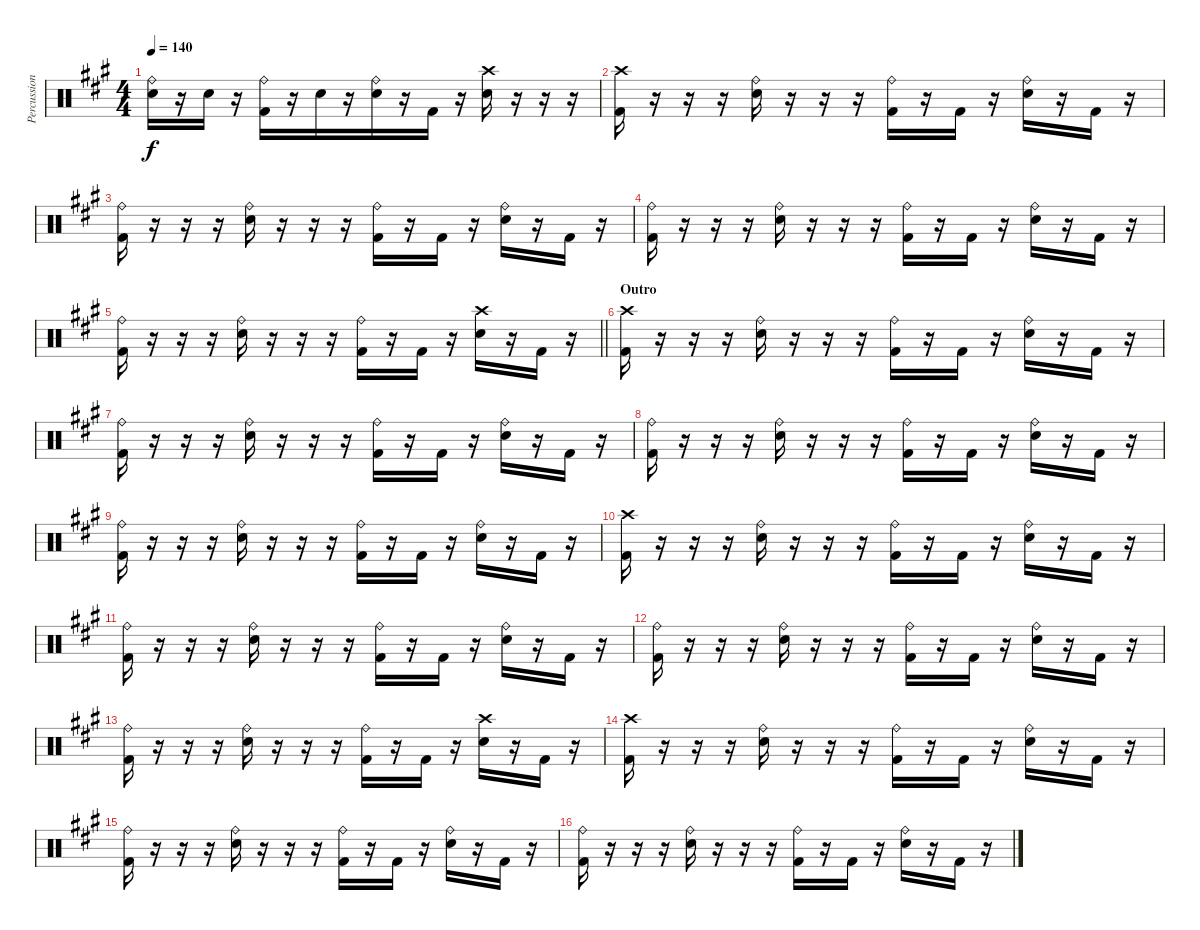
\track ("Percussion" "Percussion") {instrument percussion}
\staff {score}
\articulation defaults
\ts (4 4)
\tempo 140
\clef neutral
\ks a
("Electric Snare (hit)" "Ride (bell)").16{dy f} r.16{beam merge} "Electric Snare (hit)".16 r.16{beam merge} ("Kick (hit) 2" "Ride (bell)").16 r.16 "Electric Snare (hit)".16{beam merge} r.16 ("Electric Snare (hit)" "Ride (bell)").16 r.16 "Kick (hit) 2".16 r.16 ("Electric Snare (hit)" "Crash high (hit)").16 r.16{beam merge} r.16 r.16 |
("Kick (hit) 2" "Crash high (hit)").16 r.16{beam merge} r.16 r.16{beam merge} ("Electric Snare (hit)" "Ride (bell)").16 r.16 r.16{beam merge} r.16 ("Kick (hit) 2" "Ride (bell)").16 r.16 "Kick (hit) 2".16 r.16 ("Electric Snare (hit)" "Ride (bell)").16 r.16{beam merge} "Kick (hit) 2".16 r.16 |
("Kick (hit) 2" "Ride (bell)").16 r.16{beam merge} r.16 r.16{beam merge} ("Electric Snare (hit)" "Ride (bell)").16 r.16 r.16{beam merge} r.16 ("Kick (hit) 2" "Ride (bell)").16 r.16 "Kick (hit) 2".16 r.16 ("Electric Snare (hit)" "Ride (bell)").16 r.16{beam merge} "Kick (hit) 2".16 r.16 |
("Kick (hit) 2" "Ride (bell)").16 r.16{beam merge} r.16 r.16{beam merge} ("Electric Snare (hit)" "Ride (bell)").16 r.16 r.16{beam merge} r.16 ("Kick (hit) 2" "Ride (bell)").16 r.16 "Kick (hit) 2".16 r.16 ("Electric Snare (hit)" "Ride (bell)").16 r.16{beam merge} "Kick (hit) 2".16 r.16 |
\barLineRight lightlight
("Kick (hit) 2" "Ride (bell)").16 r.16{beam merge} r.16 r.16{beam merge} ("Electric Snare (hit)" "Ride (bell)").16 r.16 r.16{beam merge} r.16 ("Kick (hit) 2" "Ride (bell)").16 r.16 "Kick (hit) 2".16 r.16 ("Electric Snare (hit)" "Crash high (hit)").16 r.16{beam merge} "Kick (hit) 2".16 r.16 |
\section ("" "Outro")
("Kick (hit) 2" "Crash high (hit)").16 r.16{beam merge} r.16 r.16{beam merge} ("Electric Snare (hit)" "Ride (bell)").16 r.16 r.16{beam merge} r.16 ("Kick (hit) 2" "Ride (bell)").16 r.16 "Kick (hit) 2".16 r.16 ("Electric Snare (hit)" "Ride (bell)").16 r.16{beam merge} "Kick (hit) 2".16 r.16 |
("Kick (hit) 2" "Ride (bell)").16 r.16{beam merge} r.16 r.16{beam merge} ("Electric Snare (hit)" "Ride (bell)").16 r.16 r.16{beam merge} r.16 ("Kick (hit) 2" "Ride (bell)").16 r.16 "Kick (hit) 2".16 r.16 ("Electric Snare (hit)" "Ride (bell)").16 r.16{beam merge} "Kick (hit) 2".16 r.16 |
("Kick (hit) 2" "Ride (bell)").16 r.16{beam merge} r.16 r.16{beam merge} ("Electric Snare (hit)" "Ride (bell)").16 r.16 r.16{beam merge} r.16 ("Kick (hit) 2" "Ride (bell)").16 r.16 "Kick (hit) 2".16 r.16 ("Electric Snare (hit)" "Ride (bell)").16 r.16{beam merge} "Kick (hit) 2".16 r.16 |
("Kick (hit) 2" "Ride (bell)").16 r.16{beam merge} r.16 r.16{beam merge} ("Electric Snare (hit)" "Ride (bell)").16 r.16 r.16{beam merge} r.16 ("Kick (hit) 2" "Ride (bell)").16 r.16 "Kick (hit) 2".16 r.16 ("Electric Snare (hit)" "Ride (bell)").16 r.16{beam merge} "Kick (hit) 2".16 r.16 |
("Kick (hit) 2" "Crash high (hit)").16 r.16{beam merge} r.16 r.16{beam merge} ("Electric Snare (hit)" "Ride (bell)").16 r.16 r.16{beam merge} r.16 ("Kick (hit) 2" "Ride (bell)").16 r.16 "Kick (hit) 2".16 r.16 ("Electric Snare (hit)" "Ride (bell)").16 r.16{beam merge} "Kick (hit) 2".16 r.16 |
("Kick (hit) 2" "Ride (bell)").16 r.16{beam merge} r.16 r.16{beam merge} ("Electric Snare (hit)" "Ride (bell)").16 r.16 r.16{beam merge} r.16 ("Kick (hit) 2" "Ride (bell)").16 r.16 "Kick (hit) 2".16 r.16 ("Electric Snare (hit)" "Ride (bell)").16 r.16{beam merge} "Kick (hit) 2".16 r.16 |
("Kick (hit) 2" "Ride (bell)").16 r.16{beam merge} r.16 r.16{beam merge} ("Electric Snare (hit)" "Ride (bell)").16 r.16 r.16{beam merge} r.16 ("Kick (hit) 2" "Ride (bell)").16 r.16 "Kick (hit) 2".16 r.16 ("Electric Snare (hit)" "Ride (bell)").16 r.16{beam merge} "Kick (hit) 2".16 r.16 |
("Kick (hit) 2" "Ride (bell)").16 r.16{beam merge} r.16 r.16{beam merge} ("Electric Snare (hit)" "Ride (bell)").16 r.16 r.16{beam merge} r.16 ("Kick (hit) 2" "Ride (bell)").16 r.16 "Kick (hit) 2".16 r.16 ("Electric Snare (hit)" "Crash high (hit)").16 r.16{beam merge} "Kick (hit) 2".16 r.16 |
("Kick (hit) 2" "Crash high (hit)").16 r.16{beam merge} r.16 r.16{beam merge} ("Electric Snare (hit)" "Ride (bell)").16 r.16 r.16{beam merge} r.16 ("Kick (hit) 2" "Ride (bell)").16 r.16 "Kick (hit) 2".16 r.16 ("Electric Snare (hit)" "Ride (bell)").16 r.16{beam merge} "Kick (hit) 2".16 r.16 |
("Kick (hit) 2" "Ride (bell)").16 r.16{beam merge} r.16 r.16{beam merge} ("Electric Snare (hit)" "Ride (bell)").16 r.16 r.16{beam merge} r.16 ("Kick (hit) 2" "Ride (bell)").16 r.16 "Kick (hit) 2".16 r.16 ("Electric Snare (hit)" "Ride (bell)").16 r.16{beam merge} "Kick (hit) 2".16 r.16 |
("Kick (hit) 2" "Ride (bell)").16 r.16{beam merge} r.16 r.16{beam merge} ("Electric Snare (hit)" "Ride (bell)").16 r.16 r.16{beam merge} r.16 ("Kick (hit) 2" "Ride (bell)").16 r.16 "Kick (hit) 2".16 r.16 ("Electric Snare (hit)" "Ride (bell)").16 r.16{beam merge} "Kick (hit) 2".16 r.16
